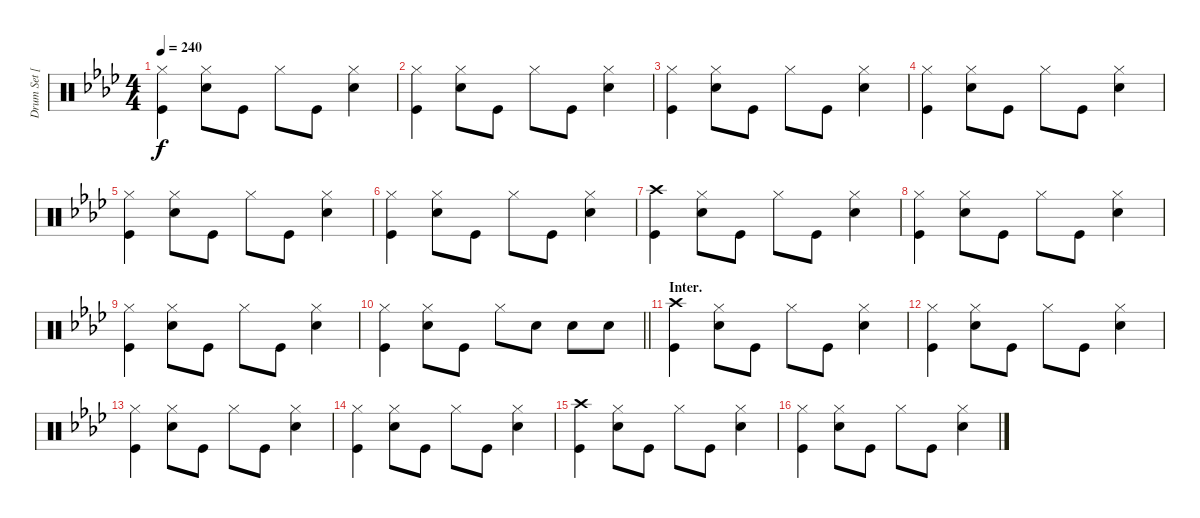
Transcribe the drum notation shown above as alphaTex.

\track ("Drum Set [Ritsu]" "Drum Set [") {instrument percussion}
\staff {score}
\articulation defaults
\ts (4 4)
\tempo 240
\clef neutral
\ks ab
("Hi-Hat (closed)" "Kick (hit)").4{dy f} ("Hi-Hat (closed)" "Snare (hit) 2").8 "Kick (hit)".8 "Hi-Hat (closed)".8 "Kick (hit)".8 ("Hi-Hat (closed)" "Snare (hit) 2").4 |
("Hi-Hat (closed)" "Kick (hit)").4 ("Hi-Hat (closed)" "Snare (hit) 2").8 "Kick (hit)".8 "Hi-Hat (closed)".8 "Kick (hit)".8 ("Hi-Hat (closed)" "Snare (hit) 2").4 |
("Hi-Hat (closed)" "Kick (hit)").4 ("Hi-Hat (closed)" "Snare (hit) 2").8 "Kick (hit)".8 "Hi-Hat (closed)".8 "Kick (hit)".8 ("Hi-Hat (closed)" "Snare (hit) 2").4 |
("Hi-Hat (closed)" "Kick (hit)").4 ("Hi-Hat (closed)" "Snare (hit) 2").8 "Kick (hit)".8 "Hi-Hat (closed)".8 "Kick (hit)".8 ("Hi-Hat (closed)" "Snare (hit) 2").4 |
("Hi-Hat (closed)" "Kick (hit)").4 ("Hi-Hat (closed)" "Snare (hit) 2").8 "Kick (hit)".8 "Hi-Hat (closed)".8 "Kick (hit)".8 ("Hi-Hat (closed)" "Snare (hit) 2").4 |
("Hi-Hat (closed)" "Kick (hit)").4 ("Hi-Hat (closed)" "Snare (hit) 2").8 "Kick (hit)".8 "Hi-Hat (closed)".8 "Kick (hit)".8 ("Hi-Hat (closed)" "Snare (hit) 2").4 |
("Crash high (hit)" "Kick (hit)").4 ("Hi-Hat (closed)" "Snare (hit) 2").8 "Kick (hit)".8 "Hi-Hat (closed)".8 "Kick (hit)".8 ("Hi-Hat (closed)" "Snare (hit) 2").4 |
("Hi-Hat (closed)" "Kick (hit)").4 ("Hi-Hat (closed)" "Snare (hit) 2").8 "Kick (hit)".8 "Hi-Hat (closed)".8 "Kick (hit)".8 ("Hi-Hat (closed)" "Snare (hit) 2").4 |
("Hi-Hat (closed)" "Kick (hit)").4 ("Hi-Hat (closed)" "Snare (hit) 2").8 "Kick (hit)".8 "Hi-Hat (closed)".8 "Kick (hit)".8 ("Hi-Hat (closed)" "Snare (hit) 2").4 |
\barLineRight lightlight
("Hi-Hat (closed)" "Kick (hit)").4 ("Hi-Hat (closed)" "Snare (hit) 2").8 "Kick (hit)".8 "Hi-Hat (closed)".8 "Snare (hit) 2".8 "Snare (hit) 2".8 "Snare (hit) 2".8 |
\section ("" "Inter.")
("Crash high (hit)" "Kick (hit)").4 ("Hi-Hat (closed)" "Snare (hit) 2").8 "Kick (hit)".8 "Hi-Hat (closed)".8 "Kick (hit)".8 ("Hi-Hat (closed)" "Snare (hit) 2").4 |
("Hi-Hat (closed)" "Kick (hit)").4 ("Hi-Hat (closed)" "Snare (hit) 2").8 "Kick (hit)".8 "Hi-Hat (closed)".8 "Kick (hit)".8 ("Hi-Hat (closed)" "Snare (hit) 2").4 |
("Hi-Hat (closed)" "Kick (hit)").4 ("Hi-Hat (closed)" "Snare (hit) 2").8 "Kick (hit)".8 "Hi-Hat (closed)".8 "Kick (hit)".8 ("Hi-Hat (closed)" "Snare (hit) 2").4 |
("Hi-Hat (closed)" "Kick (hit)").4 ("Hi-Hat (closed)" "Snare (hit) 2").8 "Kick (hit)".8 "Hi-Hat (closed)".8 "Kick (hit)".8 ("Hi-Hat (closed)" "Snare (hit) 2").4 |
("Crash high (hit)" "Kick (hit)").4 ("Hi-Hat (closed)" "Snare (hit) 2").8 "Kick (hit)".8 "Hi-Hat (closed)".8 "Kick (hit)".8 ("Hi-Hat (closed)" "Snare (hit) 2").4 |
("Hi-Hat (closed)" "Kick (hit)").4 ("Hi-Hat (closed)" "Snare (hit) 2").8 "Kick (hit)".8 "Hi-Hat (closed)".8 "Kick (hit)".8 ("Hi-Hat (closed)" "Snare (hit) 2").4
